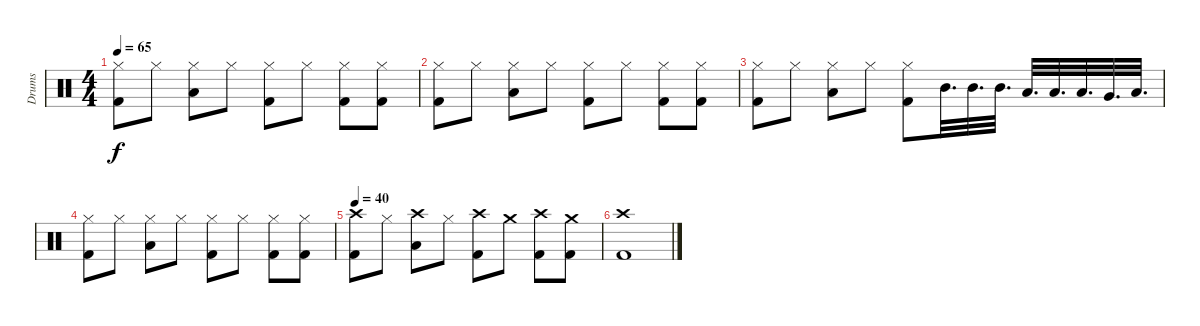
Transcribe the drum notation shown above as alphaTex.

\track ("Drums" "Drums") {instrument percussion}
\staff {score}
\articulation defaults
\ts (4 4)
\tempo 65
\clef neutral
\ks c
("Hi-Hat (closed)" "Kick (hit) 2").8{dy f} "Hi-Hat (closed)".8 ("Hi-Hat (closed)" "Low Floor Tom (hit)").8 "Hi-Hat (closed)".8 ("Hi-Hat (closed)" "Kick (hit) 2").8 "Hi-Hat (closed)".8 ("Hi-Hat (closed)" "Kick (hit) 2").8 ("Hi-Hat (closed)" "Kick (hit) 2").8 |
("Hi-Hat (closed)" "Kick (hit) 2").8 "Hi-Hat (closed)".8 ("Hi-Hat (closed)" "Low Floor Tom (hit)").8 "Hi-Hat (closed)".8 ("Hi-Hat (closed)" "Kick (hit) 2").8 "Hi-Hat (closed)".8 ("Hi-Hat (closed)" "Kick (hit) 2").8 ("Hi-Hat (closed)" "Kick (hit) 2").8 |
("Hi-Hat (closed)" "Kick (hit) 2").8 "Hi-Hat (closed)".8 ("Hi-Hat (closed)" "Low Floor Tom (hit)").8 "Hi-Hat (closed)".8 ("Hi-Hat (closed)" "Kick (hit) 2").8 "Mid Tom (hit)".32{d} "Mid Tom (hit)".32{d} "Mid Tom (hit)".32{d} "Low Tom (hit)".32{d} "Low Tom (hit)".32{d} "Low Tom (hit)".32{d} "Very Low Tom (hit)".32{d} "Low Floor Tom (hit)".32{d} |
("Hi-Hat (closed)" "Kick (hit) 2").8 "Hi-Hat (closed)".8 ("Hi-Hat (closed)" "Low Floor Tom (hit)").8 "Hi-Hat (closed)".8 ("Hi-Hat (closed)" "Kick (hit) 2").8 "Hi-Hat (closed)".8 ("Hi-Hat (closed)" "Kick (hit) 2").8 ("Hi-Hat (closed)" "Kick (hit) 2").8 |
\tempo 40
("Crash high (hit)" "Kick (hit) 2").8 "Hi-Hat (closed)".8 ("Crash high (hit)" "Low Floor Tom (hit)").8 "Hi-Hat (closed)".8 ("Crash high (hit)" "Kick (hit) 2").8 "Crash medium (hit)".8 ("Crash high (hit)" "Kick (hit) 2").8 ("Crash medium (hit)" "Kick (hit) 2").8 |
("Crash high (hit)" "Kick (hit) 2").1
